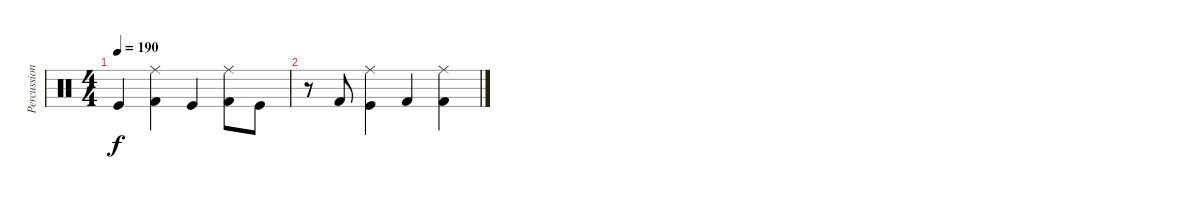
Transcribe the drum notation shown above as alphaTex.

\track ("Percussion" "Percussion") {instrument percussion}
\staff {score}
\articulation defaults
\ts (4 4)
\tempo 190
\clef neutral
\ks c "Kick (hit)".4{dy f}
("Ride (middle)" "Kick (hit) 2").4 "Kick (hit)".4 ("Ride (middle)" "Kick (hit) 2").8 "Kick (hit)".8 |
r.8 "Kick (hit) 2".8 ("Ride (middle)" "Kick (hit)").4 "Kick (hit) 2".4 ("Ride (middle)" "Kick (hit) 2").4
